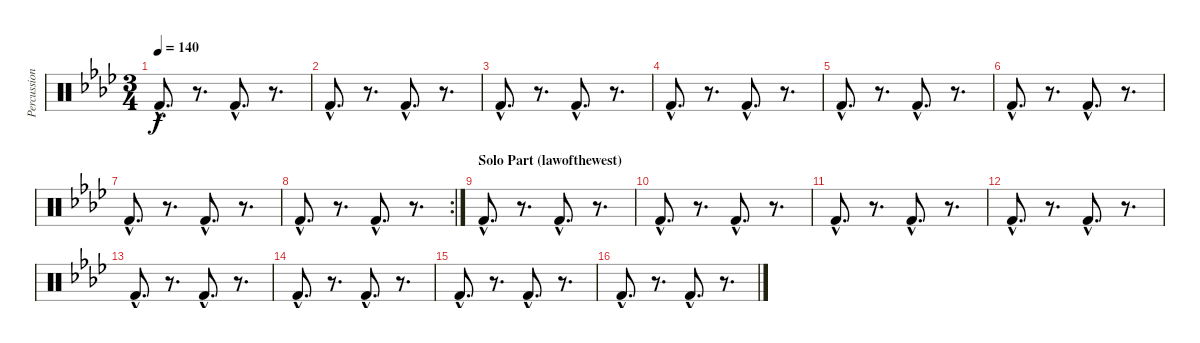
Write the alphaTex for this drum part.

\track ("Percussion" "Percussion") {instrument percussion}
\staff {score}
\articulation defaults
\ts (3 4)
\tempo 140
\clef neutral
\ks fminor "Kick (hit) 2"{hac}.8{d dy f}
r.8{d} "Kick (hit) 2"{hac}.8{d} r.8{d} |
"Kick (hit) 2"{hac}.8{d} r.8{d} "Kick (hit) 2"{hac}.8{d} r.8{d} |
"Kick (hit) 2"{hac}.8{d} r.8{d} "Kick (hit) 2"{hac}.8{d} r.8{d} |
"Kick (hit) 2"{hac}.8{d} r.8{d} "Kick (hit) 2"{hac}.8{d} r.8{d} |
"Kick (hit) 2"{hac}.8{d} r.8{d} "Kick (hit) 2"{hac}.8{d} r.8{d} |
"Kick (hit) 2"{hac}.8{d} r.8{d} "Kick (hit) 2"{hac}.8{d} r.8{d} |
"Kick (hit) 2"{hac}.8{d} r.8{d} "Kick (hit) 2"{hac}.8{d} r.8{d} |
\rc 2 "Kick (hit) 2"{hac}.8{d}
r.8{d} "Kick (hit) 2"{hac}.8{d} r.8{d} |
\section ("" "Solo Part (lawofthewest)")
"Kick (hit) 2"{hac}.8{d} r.8{d} "Kick (hit) 2"{hac}.8{d} r.8{d} |
"Kick (hit) 2"{hac}.8{d} r.8{d} "Kick (hit) 2"{hac}.8{d} r.8{d} |
"Kick (hit) 2"{hac}.8{d} r.8{d} "Kick (hit) 2"{hac}.8{d} r.8{d} |
"Kick (hit) 2"{hac}.8{d} r.8{d} "Kick (hit) 2"{hac}.8{d} r.8{d} |
"Kick (hit) 2"{hac}.8{d} r.8{d} "Kick (hit) 2"{hac}.8{d} r.8{d} |
"Kick (hit) 2"{hac}.8{d} r.8{d} "Kick (hit) 2"{hac}.8{d} r.8{d} |
"Kick (hit) 2"{hac}.8{d} r.8{d} "Kick (hit) 2"{hac}.8{d} r.8{d} |
"Kick (hit) 2"{hac}.8{d} r.8{d} "Kick (hit) 2"{hac}.8{d} r.8{d}
